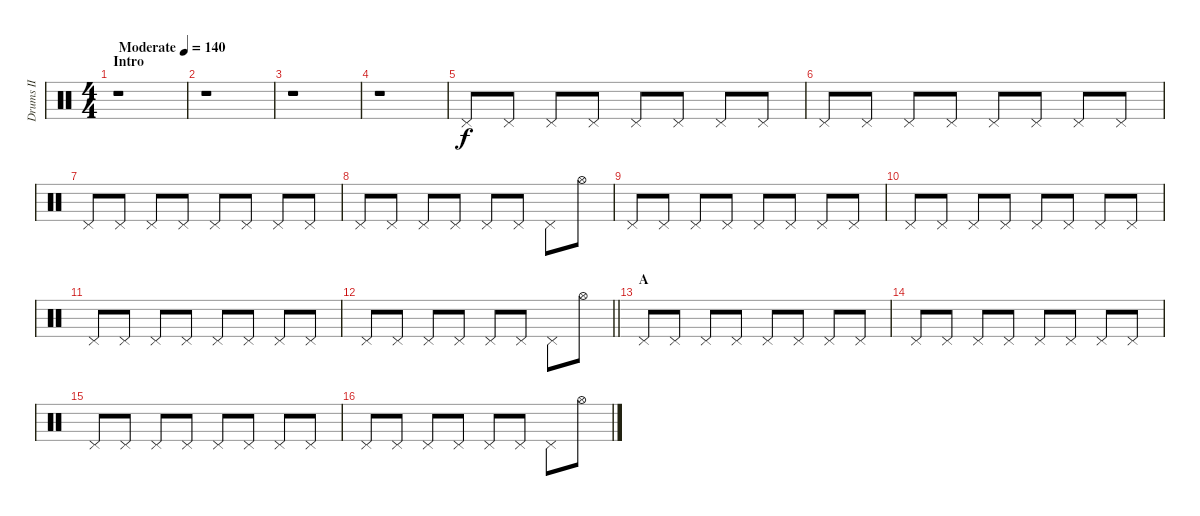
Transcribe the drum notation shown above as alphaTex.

\track ("Drums II" "Drums II") {instrument percussion}
\staff {score}
\articulation defaults
\ts (4 4)
\section ("" "Intro")
\tempo (140 "Moderate")
\clef neutral
\ks c
r.1{dy f} |
r.1 |
r.1 |
r.1 |
"Pedal Hi-Hat (hit)".8 "Pedal Hi-Hat (hit)".8 "Pedal Hi-Hat (hit)".8 "Pedal Hi-Hat (hit)".8 "Pedal Hi-Hat (hit)".8 "Pedal Hi-Hat (hit)".8 "Pedal Hi-Hat (hit)".8 "Pedal Hi-Hat (hit)".8 |
"Pedal Hi-Hat (hit)".8 "Pedal Hi-Hat (hit)".8 "Pedal Hi-Hat (hit)".8 "Pedal Hi-Hat (hit)".8 "Pedal Hi-Hat (hit)".8 "Pedal Hi-Hat (hit)".8 "Pedal Hi-Hat (hit)".8 "Pedal Hi-Hat (hit)".8 |
"Pedal Hi-Hat (hit)".8 "Pedal Hi-Hat (hit)".8 "Pedal Hi-Hat (hit)".8 "Pedal Hi-Hat (hit)".8 "Pedal Hi-Hat (hit)".8 "Pedal Hi-Hat (hit)".8 "Pedal Hi-Hat (hit)".8 "Pedal Hi-Hat (hit)".8 |
"Pedal Hi-Hat (hit)".8 "Pedal Hi-Hat (hit)".8 "Pedal Hi-Hat (hit)".8 "Pedal Hi-Hat (hit)".8 "Pedal Hi-Hat (hit)".8 "Pedal Hi-Hat (hit)".8 "Pedal Hi-Hat (hit)".8 "Hi-Hat (open)".8 |
"Pedal Hi-Hat (hit)".8 "Pedal Hi-Hat (hit)".8 "Pedal Hi-Hat (hit)".8 "Pedal Hi-Hat (hit)".8 "Pedal Hi-Hat (hit)".8 "Pedal Hi-Hat (hit)".8 "Pedal Hi-Hat (hit)".8 "Pedal Hi-Hat (hit)".8 |
"Pedal Hi-Hat (hit)".8 "Pedal Hi-Hat (hit)".8 "Pedal Hi-Hat (hit)".8 "Pedal Hi-Hat (hit)".8 "Pedal Hi-Hat (hit)".8 "Pedal Hi-Hat (hit)".8 "Pedal Hi-Hat (hit)".8 "Pedal Hi-Hat (hit)".8 |
"Pedal Hi-Hat (hit)".8 "Pedal Hi-Hat (hit)".8 "Pedal Hi-Hat (hit)".8 "Pedal Hi-Hat (hit)".8 "Pedal Hi-Hat (hit)".8 "Pedal Hi-Hat (hit)".8 "Pedal Hi-Hat (hit)".8 "Pedal Hi-Hat (hit)".8 |
\barLineRight lightlight "Pedal Hi-Hat (hit)".8 "Pedal Hi-Hat (hit)".8 "Pedal Hi-Hat (hit)".8 "Pedal Hi-Hat (hit)".8 "Pedal Hi-Hat (hit)".8 "Pedal Hi-Hat (hit)".8 "Pedal Hi-Hat (hit)".8 "Hi-Hat (open)".8
|
\section ("" "A")
"Pedal Hi-Hat (hit)".8 "Pedal Hi-Hat (hit)".8 "Pedal Hi-Hat (hit)".8 "Pedal Hi-Hat (hit)".8 "Pedal Hi-Hat (hit)".8 "Pedal Hi-Hat (hit)".8 "Pedal Hi-Hat (hit)".8 "Pedal Hi-Hat (hit)".8 |
"Pedal Hi-Hat (hit)".8 "Pedal Hi-Hat (hit)".8 "Pedal Hi-Hat (hit)".8 "Pedal Hi-Hat (hit)".8 "Pedal Hi-Hat (hit)".8 "Pedal Hi-Hat (hit)".8 "Pedal Hi-Hat (hit)".8 "Pedal Hi-Hat (hit)".8 |
"Pedal Hi-Hat (hit)".8 "Pedal Hi-Hat (hit)".8 "Pedal Hi-Hat (hit)".8 "Pedal Hi-Hat (hit)".8 "Pedal Hi-Hat (hit)".8 "Pedal Hi-Hat (hit)".8 "Pedal Hi-Hat (hit)".8 "Pedal Hi-Hat (hit)".8 |
"Pedal Hi-Hat (hit)".8 "Pedal Hi-Hat (hit)".8 "Pedal Hi-Hat (hit)".8 "Pedal Hi-Hat (hit)".8 "Pedal Hi-Hat (hit)".8 "Pedal Hi-Hat (hit)".8 "Pedal Hi-Hat (hit)".8 "Hi-Hat (open)".8
